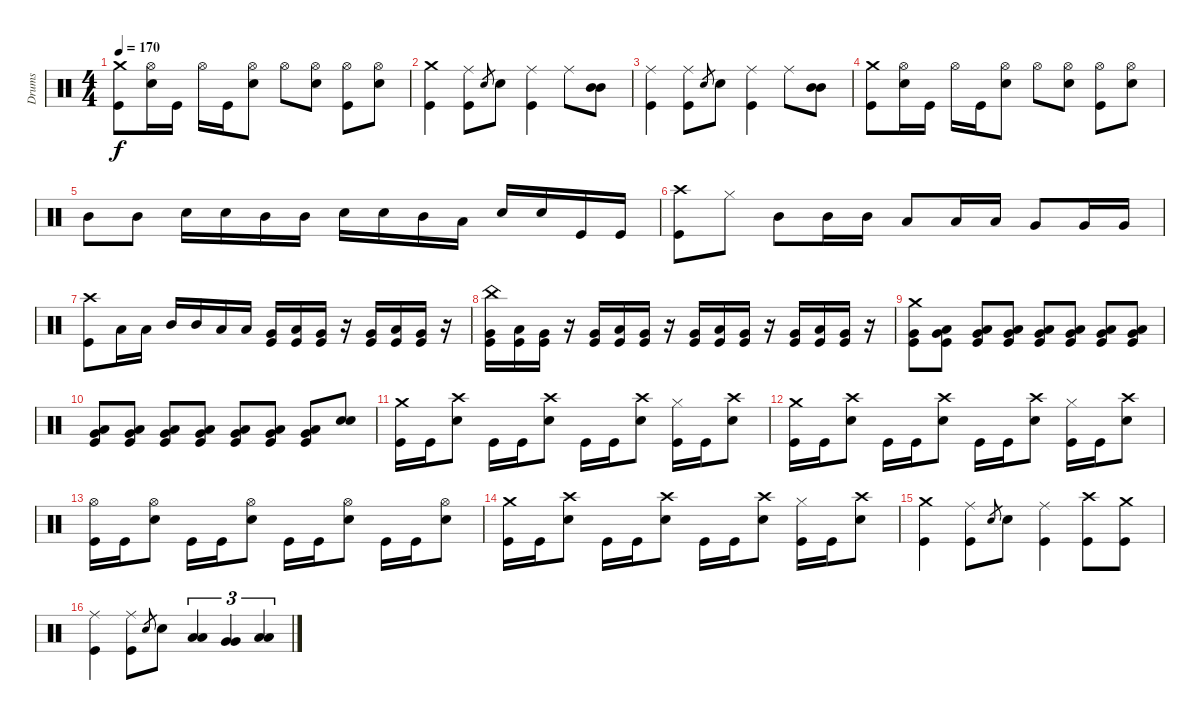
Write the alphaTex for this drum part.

\track ("Drums" "Drums") {instrument percussion}
\staff {score}
\articulation defaults
\ts (4 4)
\tempo 170
\clef neutral
\ks c
("Crash medium (hit)" "Kick (hit)").8{dy f} ("Hi-Hat (open)" "Snare (hit) 2").16 "Kick (hit)".16 "Hi-Hat (open)".16 "Kick (hit)".16 ("Hi-Hat (open)" "Snare (hit) 2").8 "Hi-Hat (open)".8 ("Hi-Hat (open)" "Snare (hit) 2").8 ("Hi-Hat (open)" "Kick (hit)").8 ("Hi-Hat (open)" "Snare (hit) 2").8 |
("Crash medium (hit)" "Kick (hit)").4 ("Ride (middle)" "Kick (hit)").8 "Snare (hit) 2".8{gr} "Snare (hit) 2".8 ("Ride (middle)" "Kick (hit)").4 "Ride (middle)".8 ("Mid Tom (hit)" "Mid Tom (hit)").8 |
("Ride (middle)" "Kick (hit)").4 ("Ride (middle)" "Kick (hit)").8 "Snare (hit) 2".8{gr} "Snare (hit) 2".8 ("Ride (middle)" "Kick (hit)").4 "Ride (middle)".8 ("Mid Tom (hit)" "Mid Tom (hit)").8 |
("Crash medium (hit)" "Kick (hit)").8 ("Hi-Hat (open)" "Snare (hit) 2").16 "Kick (hit)".16 "Hi-Hat (open)".16 "Kick (hit)".16 ("Hi-Hat (open)" "Snare (hit) 2").8 "Hi-Hat (open)".8 ("Hi-Hat (open)" "Snare (hit) 2").8 ("Hi-Hat (open)" "Kick (hit)").8 ("Hi-Hat (open)" "Snare (hit) 2").8 |
"Mid Tom (hit)".8 "Mid Tom (hit)".8 "Snare (hit) 2".16 "Snare (hit) 2".16 "Mid Tom (hit)".16 "Mid Tom (hit)".16 "Snare (hit) 2".16 "Snare (hit) 2".16 "Mid Tom (hit)".16 "Low Tom (hit)".16 "Snare (hit) 2".16 "Snare (hit) 2".16 "Kick (hit)".16 "Kick (hit)".16 |
("Crash high (hit)" "Kick (hit)").8 "Hi-Hat (closed)".8 "Mid Tom (hit)".8 "Mid Tom (hit)".16 "Mid Tom (hit)".16 "Low Tom (hit)".8 "Low Tom (hit)".16 "Low Tom (hit)".16 "Very Low Tom (hit)".8 "Very Low Tom (hit)".16 "Very Low Tom (hit)".16 |
("Crash high (hit)" "Kick (hit)").8 "Low Tom (hit)".16 "Low Tom (hit)".16 "Mid Tom (hit)".16 "Mid Tom (hit)".16 "Low Tom (hit)".16 "Low Tom (hit)".16 ("Very Low Tom (hit)" "Kick (hit)").16 ("Low Floor Tom (hit)" "Kick (hit)").16 ("Very Low Tom (hit)" "Kick (hit)").16 r.16 ("Very Low Tom (hit)" "Kick (hit)").16 ("Low Floor Tom (hit)" "Kick (hit)").16 ("Very Low Tom (hit)" "Kick (hit)").16 r.16 |
("China (hit)" "Very Low Tom (hit)" "Kick (hit)").16 ("Low Floor Tom (hit)" "Kick (hit)").16 ("Very Low Tom (hit)" "Kick (hit)").16 r.16 ("Very Low Tom (hit)" "Kick (hit)").16 ("Low Floor Tom (hit)" "Kick (hit)").16 ("Very Low Tom (hit)" "Kick (hit)").16 r.16 ("Very Low Tom (hit)" "Kick (hit)").16 ("Low Floor Tom (hit)" "Kick (hit)").16 ("Very Low Tom (hit)" "Kick (hit)").16 r.16 ("Very Low Tom (hit)" "Kick (hit)").16 ("Low Floor Tom (hit)" "Kick (hit)").16 ("Very Low Tom (hit)" "Kick (hit)").16 r.16 |
("Crash medium (hit)" "Very Low Tom (hit)" "Kick (hit)").8 ("Low Floor Tom (hit)" "Very Low Tom (hit)" "Kick (hit)").8 ("Low Floor Tom (hit)" "Very Low Tom (hit)" "Kick (hit)").8 ("Low Floor Tom (hit)" "Very Low Tom (hit)" "Kick (hit)").8 ("Low Floor Tom (hit)" "Very Low Tom (hit)" "Kick (hit)").8 ("Low Floor Tom (hit)" "Very Low Tom (hit)" "Kick (hit)").8 ("Low Floor Tom (hit)" "Very Low Tom (hit)" "Kick (hit)").8 ("Low Floor Tom (hit)" "Very Low Tom (hit)" "Kick (hit)").8 |
("Low Floor Tom (hit)" "Very Low Tom (hit)" "Kick (hit)").8 ("Low Floor Tom (hit)" "Very Low Tom (hit)" "Kick (hit)").8 ("Low Floor Tom (hit)" "Very Low Tom (hit)" "Kick (hit)").8 ("Low Floor Tom (hit)" "Very Low Tom (hit)" "Kick (hit)").8 ("Low Floor Tom (hit)" "Very Low Tom (hit)" "Kick (hit)").8 ("Low Floor Tom (hit)" "Very Low Tom (hit)" "Kick (hit)").8 ("Low Floor Tom (hit)" "Very Low Tom (hit)" "Kick (hit)").8 ("Snare (hit) 2" "Snare (hit) 2").8 |
("Crash medium (hit)" "Kick (hit)").16 "Kick (hit)".16 ("Crash high (hit)" "Snare (hit) 2").8 "Kick (hit)".16 "Kick (hit)".16 ("Crash high (hit)" "Snare (hit) 2").8 "Kick (hit)".16 "Kick (hit)".16 ("Crash high (hit)" "Snare (hit) 2").8 ("Hi-Hat (closed)" "Kick (hit)").16 "Kick (hit)".16 ("Crash high (hit)" "Snare (hit) 2").8 |
("Crash medium (hit)" "Kick (hit)").16 "Kick (hit)".16 ("Crash high (hit)" "Snare (hit) 2").8 "Kick (hit)".16 "Kick (hit)".16 ("Crash high (hit)" "Snare (hit) 2").8 "Kick (hit)".16 "Kick (hit)".16 ("Crash high (hit)" "Snare (hit) 2").8 ("Hi-Hat (closed)" "Kick (hit)").16 "Kick (hit)".16 ("Crash high (hit)" "Snare (hit) 2").8 |
("Hi-Hat (open)" "Kick (hit)").16 "Kick (hit)".16 ("Hi-Hat (open)" "Snare (hit) 2").8 "Kick (hit)".16 "Kick (hit)".16 ("Hi-Hat (open)" "Snare (hit) 2").8 "Kick (hit)".16 "Kick (hit)".16 ("Hi-Hat (open)" "Snare (hit) 2").8 "Kick (hit)".16 "Kick (hit)".16 ("Hi-Hat (open)" "Snare (hit) 2").8 |
("Crash medium (hit)" "Kick (hit)").16 "Kick (hit)".16 ("Crash high (hit)" "Snare (hit) 2").8 "Kick (hit)".16 "Kick (hit)".16 ("Crash high (hit)" "Snare (hit) 2").8 "Kick (hit)".16 "Kick (hit)".16 ("Crash high (hit)" "Snare (hit) 2").8 ("Hi-Hat (closed)" "Kick (hit)").16 "Kick (hit)".16 ("Crash high (hit)" "Snare (hit) 2").8 |
("Crash medium (hit)" "Kick (hit)").4 ("Ride (middle)" "Kick (hit)").8 "Snare (hit) 2".8{gr} "Snare (hit) 2".8 ("Ride (middle)" "Kick (hit)").4 ("Crash high (hit)" "Kick (hit)").8 ("Crash medium (hit)" "Kick (hit)").8 |
("Ride (middle)" "Kick (hit)").4 ("Ride (middle)" "Kick (hit)").8 "Snare (hit) 2".8{gr} "Snare (hit) 2".8 ("Low Tom (hit)" "Low Tom (hit)").4{tu (3 2)} ("Very Low Tom (hit)" "Very Low Tom (hit)").4{tu (3 2)} ("Low Floor Tom (hit)" "Low Floor Tom (hit)").4{tu (3 2)}
